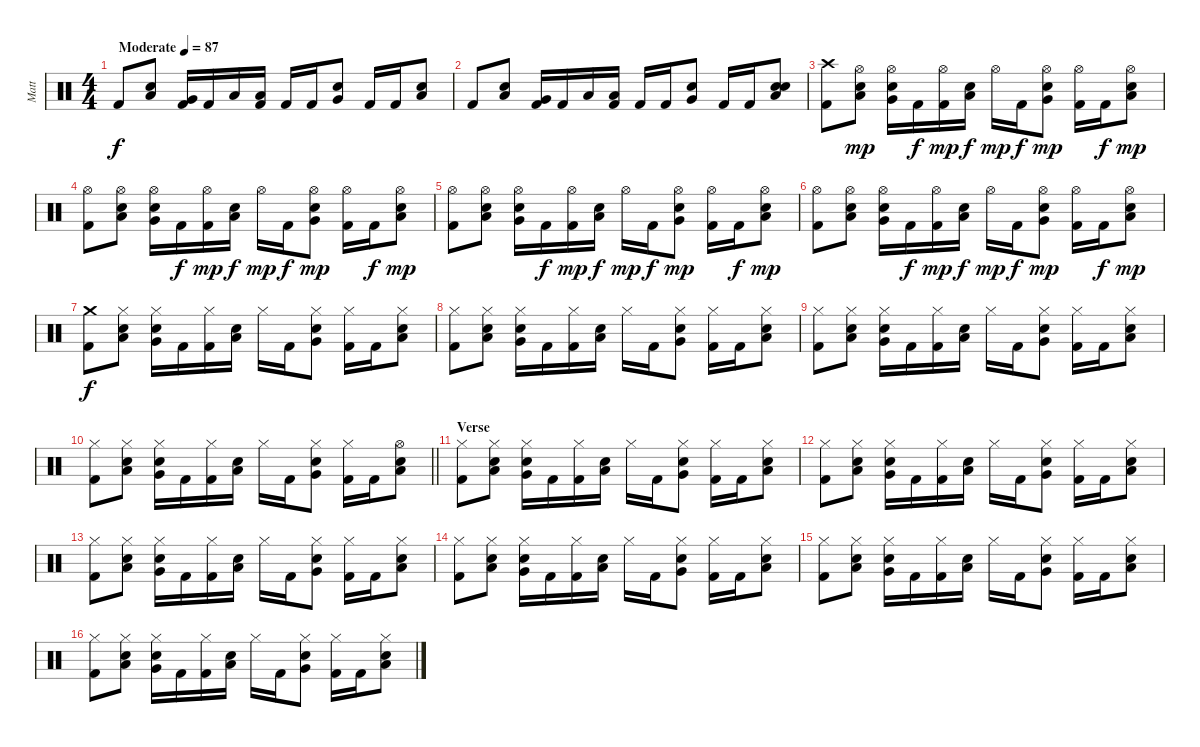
\track ("Matt" "Matt") {instrument percussion}
\staff {score}
\articulation defaults
\ts (4 4)
\tempo (87 "Moderate")
\clef neutral
\ks c "Kick (hit) 2".8{dy f}
("Low Tom (hit)" "Snare (hit) 2").8 ("Very Low Tom (hit)" "Kick (hit) 2").16 "Kick (hit) 2".16 "Low Floor Tom (hit)".16 ("Low Tom (hit)" "Kick (hit) 2").16 "Kick (hit) 2".16 "Kick (hit) 2".16 ("Very Low Tom (hit)" "Snare (hit) 2").8 "Kick (hit) 2".16 "Kick (hit) 2".16 ("Low Tom (hit)" "Snare (hit) 2").8 |
"Kick (hit) 2".8 ("Low Tom (hit)" "Snare (hit) 2").8 ("Very Low Tom (hit)" "Kick (hit) 2").16 "Kick (hit) 2".16 "Low Floor Tom (hit)".16 ("Low Tom (hit)" "Kick (hit) 2").16 "Kick (hit) 2".16 "Kick (hit) 2".16 ("Very Low Tom (hit)" "Snare (hit) 2").8 "Kick (hit) 2".16 "Kick (hit) 2".16 ("Low Tom (hit)" "Snare (hit) 2" "Snare (hit) 2").8 |
("Crash high (hit)" "Kick (hit) 2").8 ("Hi-Hat (open)" "Low Tom (hit)" "Snare (hit) 2").8{dy mp} ("Hi-Hat (open)" "Very Low Tom (hit)" "Snare (hit) 2").16 "Kick (hit) 2".16{dy f} ("Hi-Hat (open)" "Kick (hit) 2").16{dy mp} ("Low Tom (hit)" "Snare (hit) 2").16{dy f} "Hi-Hat (open)".16{dy mp} "Kick (hit) 2".16{dy f} ("Hi-Hat (open)" "Very Low Tom (hit)" "Snare (hit) 2").8{dy mp} ("Hi-Hat (open)" "Kick (hit) 2").16 "Kick (hit) 2".16{dy f} ("Hi-Hat (open)" "Low Tom (hit)" "Snare (hit) 2").8{dy mp} |
("Hi-Hat (open)" "Kick (hit) 2").8 ("Hi-Hat (open)" "Low Tom (hit)" "Snare (hit) 2").8 ("Hi-Hat (open)" "Very Low Tom (hit)" "Snare (hit) 2").16 "Kick (hit) 2".16{dy f} ("Hi-Hat (open)" "Kick (hit) 2").16{dy mp} ("Low Tom (hit)" "Snare (hit) 2").16{dy f} "Hi-Hat (open)".16{dy mp} "Kick (hit) 2".16{dy f} ("Hi-Hat (open)" "Very Low Tom (hit)" "Snare (hit) 2").8{dy mp} ("Hi-Hat (open)" "Kick (hit) 2").16 "Kick (hit) 2".16{dy f} ("Hi-Hat (open)" "Low Tom (hit)" "Snare (hit) 2").8{dy mp} |
("Hi-Hat (open)" "Kick (hit) 2").8 ("Hi-Hat (open)" "Low Tom (hit)" "Snare (hit) 2").8 ("Hi-Hat (open)" "Very Low Tom (hit)" "Snare (hit) 2").16 "Kick (hit) 2".16{dy f} ("Hi-Hat (open)" "Kick (hit) 2").16{dy mp} ("Low Tom (hit)" "Snare (hit) 2").16{dy f} "Hi-Hat (open)".16{dy mp} "Kick (hit) 2".16{dy f} ("Hi-Hat (open)" "Very Low Tom (hit)" "Snare (hit) 2").8{dy mp} ("Hi-Hat (open)" "Kick (hit) 2").16 "Kick (hit) 2".16{dy f} ("Hi-Hat (open)" "Low Tom (hit)" "Snare (hit) 2").8{dy mp} |
("Hi-Hat (open)" "Kick (hit) 2").8 ("Hi-Hat (open)" "Low Tom (hit)" "Snare (hit) 2").8 ("Hi-Hat (open)" "Very Low Tom (hit)" "Snare (hit) 2").16 "Kick (hit) 2".16{dy f} ("Hi-Hat (open)" "Kick (hit) 2").16{dy mp} ("Low Tom (hit)" "Snare (hit) 2").16{dy f} "Hi-Hat (open)".16{dy mp} "Kick (hit) 2".16{dy f} ("Hi-Hat (open)" "Very Low Tom (hit)" "Snare (hit) 2").8{dy mp} ("Hi-Hat (open)" "Kick (hit) 2").16 "Kick (hit) 2".16{dy f} ("Hi-Hat (open)" "Low Tom (hit)" "Snare (hit) 2").8{dy mp} |
("Crash medium (hit)" "Kick (hit) 2").8{dy f} ("Hi-Hat (closed)" "Low Tom (hit)" "Snare (hit) 2").8 ("Hi-Hat (closed)" "Very Low Tom (hit)" "Snare (hit) 2").16 "Kick (hit) 2".16 ("Hi-Hat (closed)" "Kick (hit) 2").16 ("Low Tom (hit)" "Snare (hit) 2").16 "Hi-Hat (closed)".16 "Kick (hit) 2".16 ("Hi-Hat (closed)" "Very Low Tom (hit)" "Snare (hit) 2").8 ("Hi-Hat (closed)" "Kick (hit) 2").16 "Kick (hit) 2".16 ("Hi-Hat (closed)" "Low Tom (hit)" "Snare (hit) 2").8 |
("Hi-Hat (closed)" "Kick (hit) 2").8 ("Hi-Hat (closed)" "Low Tom (hit)" "Snare (hit) 2").8 ("Hi-Hat (closed)" "Very Low Tom (hit)" "Snare (hit) 2").16 "Kick (hit) 2".16 ("Hi-Hat (closed)" "Kick (hit) 2").16 ("Low Tom (hit)" "Snare (hit) 2").16 "Hi-Hat (closed)".16 "Kick (hit) 2".16 ("Hi-Hat (closed)" "Very Low Tom (hit)" "Snare (hit) 2").8 ("Hi-Hat (closed)" "Kick (hit) 2").16 "Kick (hit) 2".16 ("Hi-Hat (closed)" "Low Tom (hit)" "Snare (hit) 2").8 |
("Hi-Hat (closed)" "Kick (hit) 2").8 ("Hi-Hat (closed)" "Low Tom (hit)" "Snare (hit) 2").8 ("Hi-Hat (closed)" "Very Low Tom (hit)" "Snare (hit) 2").16 "Kick (hit) 2".16 ("Hi-Hat (closed)" "Kick (hit) 2").16 ("Low Tom (hit)" "Snare (hit) 2").16 "Hi-Hat (closed)".16 "Kick (hit) 2".16 ("Hi-Hat (closed)" "Very Low Tom (hit)" "Snare (hit) 2").8 ("Hi-Hat (closed)" "Kick (hit) 2").16 "Kick (hit) 2".16 ("Hi-Hat (closed)" "Low Tom (hit)" "Snare (hit) 2").8 |
\barLineRight lightlight
("Hi-Hat (closed)" "Kick (hit) 2").8 ("Hi-Hat (closed)" "Low Tom (hit)" "Snare (hit) 2").8 ("Hi-Hat (closed)" "Very Low Tom (hit)" "Snare (hit) 2").16 "Kick (hit) 2".16 ("Hi-Hat (closed)" "Kick (hit) 2").16 ("Low Tom (hit)" "Snare (hit) 2").16 "Hi-Hat (closed)".16 "Kick (hit) 2".16 ("Hi-Hat (closed)" "Very Low Tom (hit)" "Snare (hit) 2").8 ("Hi-Hat (closed)" "Kick (hit) 2").16 "Kick (hit) 2".16 ("Hi-Hat (open)" "Low Tom (hit)" "Snare (hit) 2").8 |
\section ("" "Verse")
("Hi-Hat (closed)" "Kick (hit) 2").8 ("Hi-Hat (closed)" "Low Tom (hit)" "Snare (hit) 2").8 ("Hi-Hat (closed)" "Very Low Tom (hit)" "Snare (hit) 2").16 "Kick (hit) 2".16 ("Hi-Hat (closed)" "Kick (hit) 2").16 ("Low Tom (hit)" "Snare (hit) 2").16 "Hi-Hat (closed)".16 "Kick (hit) 2".16 ("Hi-Hat (closed)" "Very Low Tom (hit)" "Snare (hit) 2").8 ("Hi-Hat (closed)" "Kick (hit) 2").16 "Kick (hit) 2".16 ("Hi-Hat (closed)" "Low Tom (hit)" "Snare (hit) 2").8 |
("Hi-Hat (closed)" "Kick (hit) 2").8 ("Hi-Hat (closed)" "Low Tom (hit)" "Snare (hit) 2").8 ("Hi-Hat (closed)" "Very Low Tom (hit)" "Snare (hit) 2").16 "Kick (hit) 2".16 ("Hi-Hat (closed)" "Kick (hit) 2").16 ("Low Tom (hit)" "Snare (hit) 2").16 "Hi-Hat (closed)".16 "Kick (hit) 2".16 ("Hi-Hat (closed)" "Very Low Tom (hit)" "Snare (hit) 2").8 ("Hi-Hat (closed)" "Kick (hit) 2").16 "Kick (hit) 2".16 ("Hi-Hat (closed)" "Low Tom (hit)" "Snare (hit) 2").8 |
("Hi-Hat (closed)" "Kick (hit) 2").8 ("Hi-Hat (closed)" "Low Tom (hit)" "Snare (hit) 2").8 ("Hi-Hat (closed)" "Very Low Tom (hit)" "Snare (hit) 2").16 "Kick (hit) 2".16 ("Hi-Hat (closed)" "Kick (hit) 2").16 ("Low Tom (hit)" "Snare (hit) 2").16 "Hi-Hat (closed)".16 "Kick (hit) 2".16 ("Hi-Hat (closed)" "Very Low Tom (hit)" "Snare (hit) 2").8 ("Hi-Hat (closed)" "Kick (hit) 2").16 "Kick (hit) 2".16 ("Hi-Hat (closed)" "Low Tom (hit)" "Snare (hit) 2").8 |
("Hi-Hat (closed)" "Kick (hit) 2").8 ("Hi-Hat (closed)" "Low Tom (hit)" "Snare (hit) 2").8 ("Hi-Hat (closed)" "Very Low Tom (hit)" "Snare (hit) 2").16 "Kick (hit) 2".16 ("Hi-Hat (closed)" "Kick (hit) 2").16 ("Low Tom (hit)" "Snare (hit) 2").16 "Hi-Hat (closed)".16 "Kick (hit) 2".16 ("Hi-Hat (closed)" "Very Low Tom (hit)" "Snare (hit) 2").8 ("Hi-Hat (closed)" "Kick (hit) 2").16 "Kick (hit) 2".16 ("Hi-Hat (closed)" "Low Tom (hit)" "Snare (hit) 2").8 |
("Hi-Hat (closed)" "Kick (hit) 2").8 ("Hi-Hat (closed)" "Low Tom (hit)" "Snare (hit) 2").8 ("Hi-Hat (closed)" "Very Low Tom (hit)" "Snare (hit) 2").16 "Kick (hit) 2".16 ("Hi-Hat (closed)" "Kick (hit) 2").16 ("Low Tom (hit)" "Snare (hit) 2").16 "Hi-Hat (closed)".16 "Kick (hit) 2".16 ("Hi-Hat (closed)" "Very Low Tom (hit)" "Snare (hit) 2").8 ("Hi-Hat (closed)" "Kick (hit) 2").16 "Kick (hit) 2".16 ("Hi-Hat (closed)" "Low Tom (hit)" "Snare (hit) 2").8 |
("Hi-Hat (closed)" "Kick (hit) 2").8 ("Hi-Hat (closed)" "Low Tom (hit)" "Snare (hit) 2").8 ("Hi-Hat (closed)" "Very Low Tom (hit)" "Snare (hit) 2").16 "Kick (hit) 2".16 ("Hi-Hat (closed)" "Kick (hit) 2").16 ("Low Tom (hit)" "Snare (hit) 2").16 "Hi-Hat (closed)".16 "Kick (hit) 2".16 ("Hi-Hat (closed)" "Very Low Tom (hit)" "Snare (hit) 2").8 ("Hi-Hat (closed)" "Kick (hit) 2").16 "Kick (hit) 2".16 ("Hi-Hat (closed)" "Low Tom (hit)" "Snare (hit) 2").8
